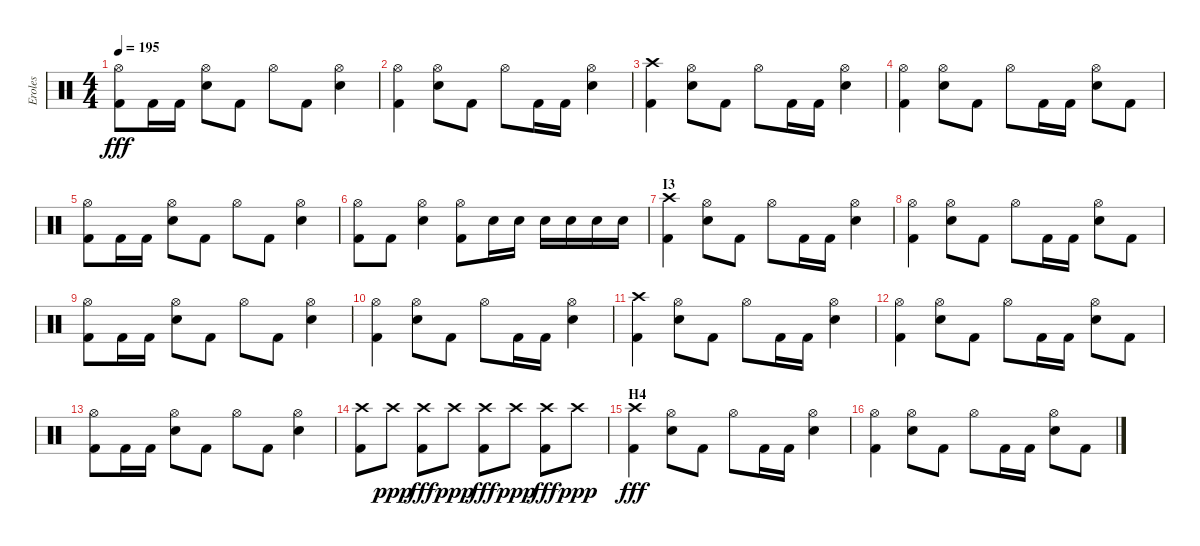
\track ("Eroles" "Eroles") {instrument percussion}
\staff {score}
\articulation defaults
\ts (4 4)
\tempo 195
\clef neutral
\ks c
("Hi-Hat (open)" "Kick (hit) 2").8{dy fff} "Kick (hit) 2".16 "Kick (hit) 2".16 ("Hi-Hat (open)" "Snare (hit) 2").8 "Kick (hit) 2".8 "Hi-Hat (open)".8 "Kick (hit) 2".8 ("Hi-Hat (open)" "Snare (hit) 2").4 |
("Hi-Hat (open)" "Kick (hit) 2").4 ("Hi-Hat (open)" "Snare (hit) 2").8 "Kick (hit) 2".8 "Hi-Hat (open)".8 "Kick (hit) 2".16 "Kick (hit) 2".16 ("Hi-Hat (open)" "Snare (hit) 2").4 |
("Crash high (hit)" "Kick (hit) 2").4 ("Hi-Hat (open)" "Snare (hit) 2").8 "Kick (hit) 2".8 "Hi-Hat (open)".8 "Kick (hit) 2".16 "Kick (hit) 2".16 ("Hi-Hat (open)" "Snare (hit) 2").4 |
("Hi-Hat (open)" "Kick (hit) 2").4 ("Hi-Hat (open)" "Snare (hit) 2").8 "Kick (hit) 2".8 "Hi-Hat (open)".8 "Kick (hit) 2".16 "Kick (hit) 2".16 ("Hi-Hat (open)" "Snare (hit) 2").8 "Kick (hit) 2".8 |
("Hi-Hat (open)" "Kick (hit) 2").8 "Kick (hit) 2".16 "Kick (hit) 2".16 ("Hi-Hat (open)" "Snare (hit) 2").8 "Kick (hit) 2".8 "Hi-Hat (open)".8 "Kick (hit) 2".8 ("Hi-Hat (open)" "Snare (hit) 2").4 |
("Hi-Hat (open)" "Kick (hit) 2").8 "Kick (hit) 2".8 ("Hi-Hat (open)" "Snare (hit) 2").4 ("Hi-Hat (open)" "Kick (hit) 2").8 "Snare (hit) 2".16 "Snare (hit) 2".16 "Snare (hit) 2".16 "Snare (hit) 2".16 "Snare (hit) 2".16 "Snare (hit) 2".16 |
\section ("" "I3")
("Crash high (hit)" "Kick (hit) 2").4 ("Hi-Hat (open)" "Snare (hit) 2").8 "Kick (hit) 2".8 "Hi-Hat (open)".8 "Kick (hit) 2".16 "Kick (hit) 2".16 ("Hi-Hat (open)" "Snare (hit) 2").4 |
("Hi-Hat (open)" "Kick (hit) 2").4 ("Hi-Hat (open)" "Snare (hit) 2").8 "Kick (hit) 2".8 "Hi-Hat (open)".8 "Kick (hit) 2".16 "Kick (hit) 2".16 ("Hi-Hat (open)" "Snare (hit) 2").8 "Kick (hit) 2".8 |
("Hi-Hat (open)" "Kick (hit) 2").8 "Kick (hit) 2".16 "Kick (hit) 2".16 ("Hi-Hat (open)" "Snare (hit) 2").8 "Kick (hit) 2".8 "Hi-Hat (open)".8 "Kick (hit) 2".8 ("Hi-Hat (open)" "Snare (hit) 2").4 |
("Hi-Hat (open)" "Kick (hit) 2").4 ("Hi-Hat (open)" "Snare (hit) 2").8 "Kick (hit) 2".8 "Hi-Hat (open)".8 "Kick (hit) 2".16 "Kick (hit) 2".16 ("Hi-Hat (open)" "Snare (hit) 2").4 |
("Crash high (hit)" "Kick (hit) 2").4 ("Hi-Hat (open)" "Snare (hit) 2").8 "Kick (hit) 2".8 "Hi-Hat (open)".8 "Kick (hit) 2".16 "Kick (hit) 2".16 ("Hi-Hat (open)" "Snare (hit) 2").4 |
("Hi-Hat (open)" "Kick (hit) 2").4 ("Hi-Hat (open)" "Snare (hit) 2").8 "Kick (hit) 2".8 "Hi-Hat (open)".8 "Kick (hit) 2".16 "Kick (hit) 2".16 ("Hi-Hat (open)" "Snare (hit) 2").8 "Kick (hit) 2".8 |
("Hi-Hat (open)" "Kick (hit) 2").8 "Kick (hit) 2".16 "Kick (hit) 2".16 ("Hi-Hat (open)" "Snare (hit) 2").8 "Kick (hit) 2".8 "Hi-Hat (open)".8 "Kick (hit) 2".8 ("Hi-Hat (open)" "Snare (hit) 2").4 |
("Crash high (hit)" "Kick (hit) 2").8 "Crash high (hit)".8{dy ppp} ("Crash high (hit)" "Kick (hit) 2").8{dy fff} "Crash high (hit)".8{dy ppp} ("Crash high (hit)" "Kick (hit) 2").8{dy fff} "Crash high (hit)".8{dy ppp} ("Crash high (hit)" "Kick (hit) 2").8{dy fff} "Crash high (hit)".8{dy ppp} |
\section ("" "H4")
("Crash high (hit)" "Kick (hit) 2").4{dy fff} ("Hi-Hat (open)" "Snare (hit) 2").8 "Kick (hit) 2".8 "Hi-Hat (open)".8 "Kick (hit) 2".16 "Kick (hit) 2".16 ("Hi-Hat (open)" "Snare (hit) 2").4 |
("Hi-Hat (open)" "Kick (hit) 2").4 ("Hi-Hat (open)" "Snare (hit) 2").8 "Kick (hit) 2".8 "Hi-Hat (open)".8 "Kick (hit) 2".16 "Kick (hit) 2".16 ("Hi-Hat (open)" "Snare (hit) 2").8 "Kick (hit) 2".8
